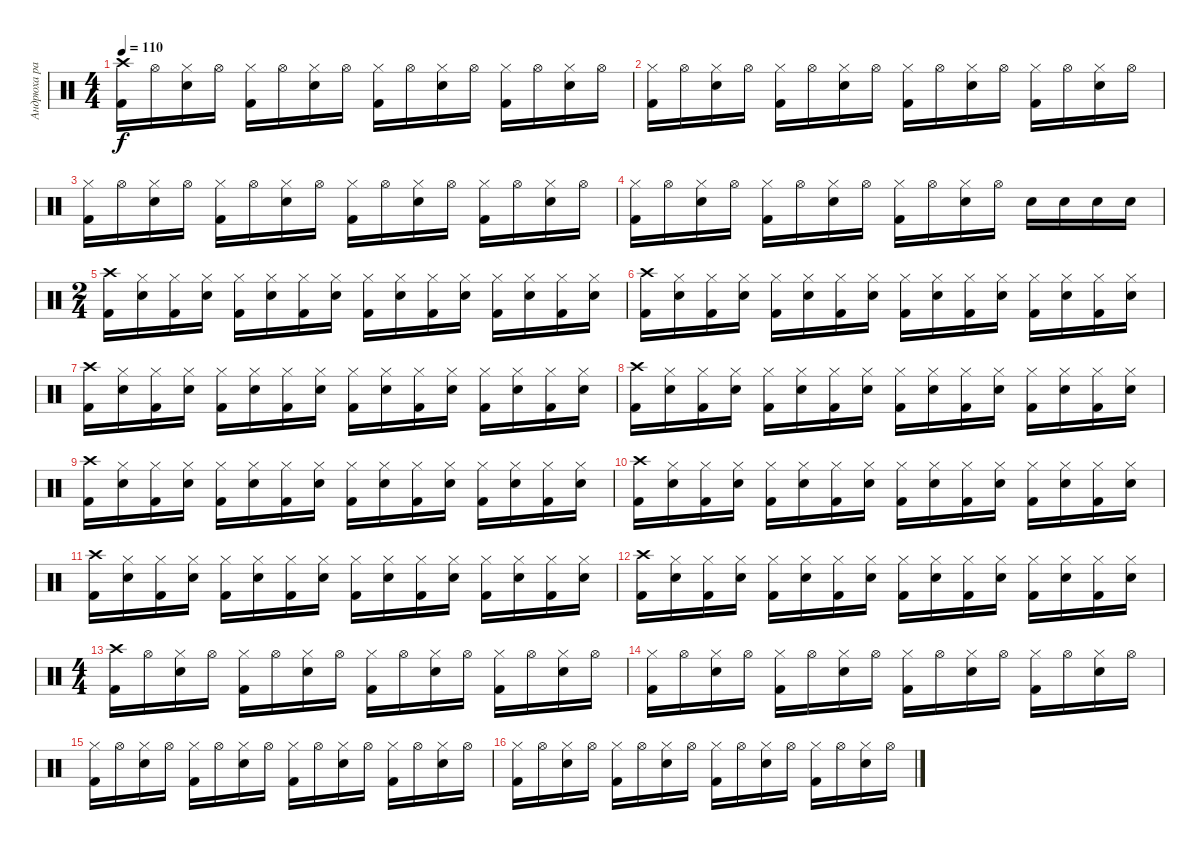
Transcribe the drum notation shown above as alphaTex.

\track ("Андрюха радостный" "Андрюха ра") {instrument percussion}
\staff {score}
\articulation defaults
\ts (4 4)
\tempo 110
\clef neutral
\ks c
("Crash high (hit)" "Kick (hit) 2").16{dy f} "Hi-Hat (open)".16 ("Hi-Hat (closed)" "Electric Snare (hit)").16 "Hi-Hat (open)".16 ("Hi-Hat (closed)" "Kick (hit) 2").16 "Hi-Hat (open)".16 ("Hi-Hat (closed)" "Electric Snare (hit)").16 "Hi-Hat (open)".16 ("Hi-Hat (closed)" "Kick (hit) 2").16 "Hi-Hat (open)".16 ("Hi-Hat (closed)" "Electric Snare (hit)").16 "Hi-Hat (open)".16 ("Hi-Hat (closed)" "Kick (hit) 2").16 "Hi-Hat (open)".16 ("Hi-Hat (closed)" "Electric Snare (hit)").16 "Hi-Hat (open)".16 |
("Hi-Hat (closed)" "Kick (hit) 2").16 "Hi-Hat (open)".16 ("Hi-Hat (closed)" "Electric Snare (hit)").16 "Hi-Hat (open)".16 ("Hi-Hat (closed)" "Kick (hit) 2").16 "Hi-Hat (open)".16 ("Hi-Hat (closed)" "Electric Snare (hit)").16 "Hi-Hat (open)".16 ("Hi-Hat (closed)" "Kick (hit) 2").16 "Hi-Hat (open)".16 ("Hi-Hat (closed)" "Electric Snare (hit)").16 "Hi-Hat (open)".16 ("Hi-Hat (closed)" "Kick (hit) 2").16 "Hi-Hat (open)".16 ("Hi-Hat (closed)" "Electric Snare (hit)").16 "Hi-Hat (open)".16 |
("Hi-Hat (closed)" "Kick (hit) 2").16 "Hi-Hat (open)".16 ("Hi-Hat (closed)" "Electric Snare (hit)").16 "Hi-Hat (open)".16 ("Hi-Hat (closed)" "Kick (hit) 2").16 "Hi-Hat (open)".16 ("Hi-Hat (closed)" "Electric Snare (hit)").16 "Hi-Hat (open)".16 ("Hi-Hat (closed)" "Kick (hit) 2").16 "Hi-Hat (open)".16 ("Hi-Hat (closed)" "Electric Snare (hit)").16 "Hi-Hat (open)".16 ("Hi-Hat (closed)" "Kick (hit) 2").16 "Hi-Hat (open)".16 ("Hi-Hat (closed)" "Electric Snare (hit)").16 "Hi-Hat (open)".16 |
("Hi-Hat (closed)" "Kick (hit) 2").16 "Hi-Hat (open)".16 ("Hi-Hat (closed)" "Electric Snare (hit)").16 "Hi-Hat (open)".16 ("Hi-Hat (closed)" "Kick (hit) 2").16 "Hi-Hat (open)".16 ("Hi-Hat (closed)" "Electric Snare (hit)").16 "Hi-Hat (open)".16 ("Hi-Hat (closed)" "Kick (hit) 2").16 "Hi-Hat (open)".16 ("Hi-Hat (closed)" "Electric Snare (hit)").16 "Hi-Hat (open)".16 "Electric Snare (hit)".16 "Electric Snare (hit)".16 "Electric Snare (hit)".16 "Electric Snare (hit)".16 |
\ts (2 4)
("Crash high (hit)" "Kick (hit) 2").16 ("Hi-Hat (closed)" "Electric Snare (hit)").16 ("Hi-Hat (closed)" "Kick (hit) 2").16 ("Hi-Hat (closed)" "Electric Snare (hit)").16 ("Hi-Hat (closed)" "Kick (hit) 2").16 ("Hi-Hat (closed)" "Electric Snare (hit)").16 ("Hi-Hat (closed)" "Kick (hit) 2").16 ("Hi-Hat (closed)" "Electric Snare (hit)").16 ("Hi-Hat (closed)" "Kick (hit) 2").16 ("Hi-Hat (closed)" "Electric Snare (hit)").16 ("Hi-Hat (closed)" "Kick (hit) 2").16 ("Hi-Hat (closed)" "Electric Snare (hit)").16 ("Hi-Hat (closed)" "Kick (hit) 2").16 ("Hi-Hat (closed)" "Electric Snare (hit)").16 ("Hi-Hat (closed)" "Kick (hit) 2").16 ("Hi-Hat (closed)" "Electric Snare (hit)").16 |
("Crash high (hit)" "Kick (hit) 2").16 ("Hi-Hat (closed)" "Electric Snare (hit)").16 ("Hi-Hat (closed)" "Kick (hit) 2").16 ("Hi-Hat (closed)" "Electric Snare (hit)").16 ("Hi-Hat (closed)" "Kick (hit) 2").16 ("Hi-Hat (closed)" "Electric Snare (hit)").16 ("Hi-Hat (closed)" "Kick (hit) 2").16 ("Hi-Hat (closed)" "Electric Snare (hit)").16 ("Hi-Hat (closed)" "Kick (hit) 2").16 ("Hi-Hat (closed)" "Electric Snare (hit)").16 ("Hi-Hat (closed)" "Kick (hit) 2").16 ("Hi-Hat (closed)" "Electric Snare (hit)").16 ("Hi-Hat (closed)" "Kick (hit) 2").16 ("Hi-Hat (closed)" "Electric Snare (hit)").16 ("Hi-Hat (closed)" "Kick (hit) 2").16 ("Hi-Hat (closed)" "Electric Snare (hit)").16 |
("Crash high (hit)" "Kick (hit) 2").16 ("Hi-Hat (closed)" "Electric Snare (hit)").16 ("Hi-Hat (closed)" "Kick (hit) 2").16 ("Hi-Hat (closed)" "Electric Snare (hit)").16 ("Hi-Hat (closed)" "Kick (hit) 2").16 ("Hi-Hat (closed)" "Electric Snare (hit)").16 ("Hi-Hat (closed)" "Kick (hit) 2").16 ("Hi-Hat (closed)" "Electric Snare (hit)").16 ("Hi-Hat (closed)" "Kick (hit) 2").16 ("Hi-Hat (closed)" "Electric Snare (hit)").16 ("Hi-Hat (closed)" "Kick (hit) 2").16 ("Hi-Hat (closed)" "Electric Snare (hit)").16 ("Hi-Hat (closed)" "Kick (hit) 2").16 ("Hi-Hat (closed)" "Electric Snare (hit)").16 ("Hi-Hat (closed)" "Kick (hit) 2").16 ("Hi-Hat (closed)" "Electric Snare (hit)").16 |
("Crash high (hit)" "Kick (hit) 2").16 ("Hi-Hat (closed)" "Electric Snare (hit)").16 ("Hi-Hat (closed)" "Kick (hit) 2").16 ("Hi-Hat (closed)" "Electric Snare (hit)").16 ("Hi-Hat (closed)" "Kick (hit) 2").16 ("Hi-Hat (closed)" "Electric Snare (hit)").16 ("Hi-Hat (closed)" "Kick (hit) 2").16 ("Hi-Hat (closed)" "Electric Snare (hit)").16 ("Hi-Hat (closed)" "Kick (hit) 2").16 ("Hi-Hat (closed)" "Electric Snare (hit)").16 ("Hi-Hat (closed)" "Kick (hit) 2").16 ("Hi-Hat (closed)" "Electric Snare (hit)").16 ("Hi-Hat (closed)" "Kick (hit) 2").16 ("Hi-Hat (closed)" "Electric Snare (hit)").16 ("Hi-Hat (closed)" "Kick (hit) 2").16 ("Hi-Hat (closed)" "Electric Snare (hit)").16 |
("Crash high (hit)" "Kick (hit) 2").16 ("Hi-Hat (closed)" "Electric Snare (hit)").16 ("Hi-Hat (closed)" "Kick (hit) 2").16 ("Hi-Hat (closed)" "Electric Snare (hit)").16 ("Hi-Hat (closed)" "Kick (hit) 2").16 ("Hi-Hat (closed)" "Electric Snare (hit)").16 ("Hi-Hat (closed)" "Kick (hit) 2").16 ("Hi-Hat (closed)" "Electric Snare (hit)").16 ("Hi-Hat (closed)" "Kick (hit) 2").16 ("Hi-Hat (closed)" "Electric Snare (hit)").16 ("Hi-Hat (closed)" "Kick (hit) 2").16 ("Hi-Hat (closed)" "Electric Snare (hit)").16 ("Hi-Hat (closed)" "Kick (hit) 2").16 ("Hi-Hat (closed)" "Electric Snare (hit)").16 ("Hi-Hat (closed)" "Kick (hit) 2").16 ("Hi-Hat (closed)" "Electric Snare (hit)").16 |
("Crash high (hit)" "Kick (hit) 2").16 ("Hi-Hat (closed)" "Electric Snare (hit)").16 ("Hi-Hat (closed)" "Kick (hit) 2").16 ("Hi-Hat (closed)" "Electric Snare (hit)").16 ("Hi-Hat (closed)" "Kick (hit) 2").16 ("Hi-Hat (closed)" "Electric Snare (hit)").16 ("Hi-Hat (closed)" "Kick (hit) 2").16 ("Hi-Hat (closed)" "Electric Snare (hit)").16 ("Hi-Hat (closed)" "Kick (hit) 2").16 ("Hi-Hat (closed)" "Electric Snare (hit)").16 ("Hi-Hat (closed)" "Kick (hit) 2").16 ("Hi-Hat (closed)" "Electric Snare (hit)").16 ("Hi-Hat (closed)" "Kick (hit) 2").16 ("Hi-Hat (closed)" "Electric Snare (hit)").16 ("Hi-Hat (closed)" "Kick (hit) 2").16 ("Hi-Hat (closed)" "Electric Snare (hit)").16 |
("Crash high (hit)" "Kick (hit) 2").16 ("Hi-Hat (closed)" "Electric Snare (hit)").16 ("Hi-Hat (closed)" "Kick (hit) 2").16 ("Hi-Hat (closed)" "Electric Snare (hit)").16 ("Hi-Hat (closed)" "Kick (hit) 2").16 ("Hi-Hat (closed)" "Electric Snare (hit)").16 ("Hi-Hat (closed)" "Kick (hit) 2").16 ("Hi-Hat (closed)" "Electric Snare (hit)").16 ("Hi-Hat (closed)" "Kick (hit) 2").16 ("Hi-Hat (closed)" "Electric Snare (hit)").16 ("Hi-Hat (closed)" "Kick (hit) 2").16 ("Hi-Hat (closed)" "Electric Snare (hit)").16 ("Hi-Hat (closed)" "Kick (hit) 2").16 ("Hi-Hat (closed)" "Electric Snare (hit)").16 ("Hi-Hat (closed)" "Kick (hit) 2").16 ("Hi-Hat (closed)" "Electric Snare (hit)").16 |
("Crash high (hit)" "Kick (hit) 2").16 ("Hi-Hat (closed)" "Electric Snare (hit)").16 ("Hi-Hat (closed)" "Kick (hit) 2").16 ("Hi-Hat (closed)" "Electric Snare (hit)").16 ("Hi-Hat (closed)" "Kick (hit) 2").16 ("Hi-Hat (closed)" "Electric Snare (hit)").16 ("Hi-Hat (closed)" "Kick (hit) 2").16 ("Hi-Hat (closed)" "Electric Snare (hit)").16 ("Hi-Hat (closed)" "Kick (hit) 2").16 ("Hi-Hat (closed)" "Electric Snare (hit)").16 ("Hi-Hat (closed)" "Kick (hit) 2").16 ("Hi-Hat (closed)" "Electric Snare (hit)").16 ("Hi-Hat (closed)" "Kick (hit) 2").16 ("Hi-Hat (closed)" "Electric Snare (hit)").16 ("Hi-Hat (closed)" "Kick (hit) 2").16 ("Hi-Hat (closed)" "Electric Snare (hit)").16 |
\ts (4 4)
("Crash high (hit)" "Kick (hit) 2").16 "Hi-Hat (open)".16 ("Hi-Hat (closed)" "Electric Snare (hit)").16 "Hi-Hat (open)".16 ("Hi-Hat (closed)" "Kick (hit) 2").16 "Hi-Hat (open)".16 ("Hi-Hat (closed)" "Electric Snare (hit)").16 "Hi-Hat (open)".16 ("Hi-Hat (closed)" "Kick (hit) 2").16 "Hi-Hat (open)".16 ("Hi-Hat (closed)" "Electric Snare (hit)").16 "Hi-Hat (open)".16 ("Hi-Hat (closed)" "Kick (hit) 2").16 "Hi-Hat (open)".16 ("Hi-Hat (closed)" "Electric Snare (hit)").16 "Hi-Hat (open)".16 |
("Hi-Hat (closed)" "Kick (hit) 2").16 "Hi-Hat (open)".16 ("Hi-Hat (closed)" "Electric Snare (hit)").16 "Hi-Hat (open)".16 ("Hi-Hat (closed)" "Kick (hit) 2").16 "Hi-Hat (open)".16 ("Hi-Hat (closed)" "Electric Snare (hit)").16 "Hi-Hat (open)".16 ("Hi-Hat (closed)" "Kick (hit) 2").16 "Hi-Hat (open)".16 ("Hi-Hat (closed)" "Electric Snare (hit)").16 "Hi-Hat (open)".16 ("Hi-Hat (closed)" "Kick (hit) 2").16 "Hi-Hat (open)".16 ("Hi-Hat (closed)" "Electric Snare (hit)").16 "Hi-Hat (open)".16 |
("Hi-Hat (closed)" "Kick (hit) 2").16 "Hi-Hat (open)".16 ("Hi-Hat (closed)" "Electric Snare (hit)").16 "Hi-Hat (open)".16 ("Hi-Hat (closed)" "Kick (hit) 2").16 "Hi-Hat (open)".16 ("Hi-Hat (closed)" "Electric Snare (hit)").16 "Hi-Hat (open)".16 ("Hi-Hat (closed)" "Kick (hit) 2").16 "Hi-Hat (open)".16 ("Hi-Hat (closed)" "Electric Snare (hit)").16 "Hi-Hat (open)".16 ("Hi-Hat (closed)" "Kick (hit) 2").16 "Hi-Hat (open)".16 ("Hi-Hat (closed)" "Electric Snare (hit)").16 "Hi-Hat (open)".16 |
("Hi-Hat (closed)" "Kick (hit) 2").16 "Hi-Hat (open)".16 ("Hi-Hat (closed)" "Electric Snare (hit)").16 "Hi-Hat (open)".16 ("Hi-Hat (closed)" "Kick (hit) 2").16 "Hi-Hat (open)".16 ("Hi-Hat (closed)" "Electric Snare (hit)").16 "Hi-Hat (open)".16 ("Hi-Hat (closed)" "Kick (hit) 2").16 "Hi-Hat (open)".16 ("Hi-Hat (closed)" "Electric Snare (hit)").16 "Hi-Hat (open)".16 ("Hi-Hat (closed)" "Kick (hit) 2").16 "Hi-Hat (open)".16 ("Hi-Hat (closed)" "Electric Snare (hit)").16 "Hi-Hat (open)".16
